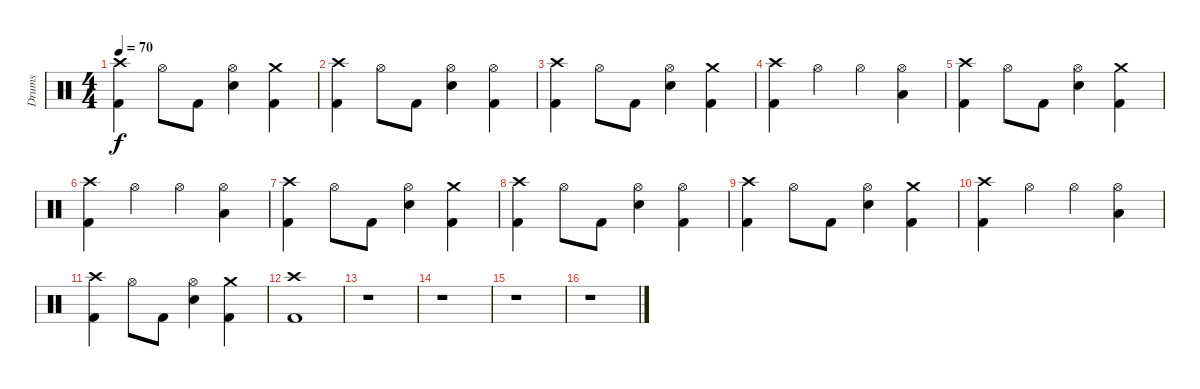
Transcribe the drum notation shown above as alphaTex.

\track ("Drums" "Drums") {instrument percussion}
\staff {score}
\articulation defaults
\ts (4 4)
\tempo 70
\clef neutral
\ks c
("Crash high (hit)" "Kick (hit) 2").4{dy f} "Hi-Hat (open)".8 "Kick (hit) 2".8 ("Hi-Hat (open)" "Electric Snare (hit)").4 ("Crash medium (hit)" "Kick (hit) 2").4 |
("Crash high (hit)" "Kick (hit) 2").4 "Hi-Hat (open)".8 "Kick (hit) 2".8 ("Hi-Hat (open)" "Electric Snare (hit)").4 ("Hi-Hat (open)" "Kick (hit) 2").4 |
("Crash high (hit)" "Kick (hit) 2").4 "Hi-Hat (open)".8 "Kick (hit) 2".8 ("Hi-Hat (open)" "Electric Snare (hit)").4 ("Crash medium (hit)" "Kick (hit) 2").4 |
("Crash high (hit)" "Kick (hit) 2").4 "Hi-Hat (open)".4 "Hi-Hat (open)".4 ("Hi-Hat (open)" "Low Floor Tom (hit)").4 |
("Crash high (hit)" "Kick (hit) 2").4 "Hi-Hat (open)".8 "Kick (hit) 2".8 ("Hi-Hat (open)" "Electric Snare (hit)").4 ("Crash medium (hit)" "Kick (hit) 2").4 |
("Crash high (hit)" "Kick (hit) 2").4 "Hi-Hat (open)".4 "Hi-Hat (open)".4 ("Hi-Hat (open)" "Low Floor Tom (hit)").4 |
("Crash high (hit)" "Kick (hit) 2").4 "Hi-Hat (open)".8 "Kick (hit) 2".8 ("Hi-Hat (open)" "Electric Snare (hit)").4 ("Crash medium (hit)" "Kick (hit) 2").4 |
("Crash high (hit)" "Kick (hit) 2").4 "Hi-Hat (open)".8 "Kick (hit) 2".8 ("Hi-Hat (open)" "Electric Snare (hit)").4 ("Hi-Hat (open)" "Kick (hit) 2").4 |
("Crash high (hit)" "Kick (hit) 2").4 "Hi-Hat (open)".8 "Kick (hit) 2".8 ("Hi-Hat (open)" "Electric Snare (hit)").4 ("Crash medium (hit)" "Kick (hit) 2").4 |
("Crash high (hit)" "Kick (hit) 2").4 "Hi-Hat (open)".4 "Hi-Hat (open)".4 ("Hi-Hat (open)" "Low Floor Tom (hit)").4 |
("Crash high (hit)" "Kick (hit) 2").4 "Hi-Hat (open)".8 "Kick (hit) 2".8 ("Hi-Hat (open)" "Electric Snare (hit)").4 ("Crash medium (hit)" "Kick (hit) 2").4 |
("Crash high (hit)" "Kick (hit) 2").1 |
r.1 |
r.1 |
r.1 |
r.1
